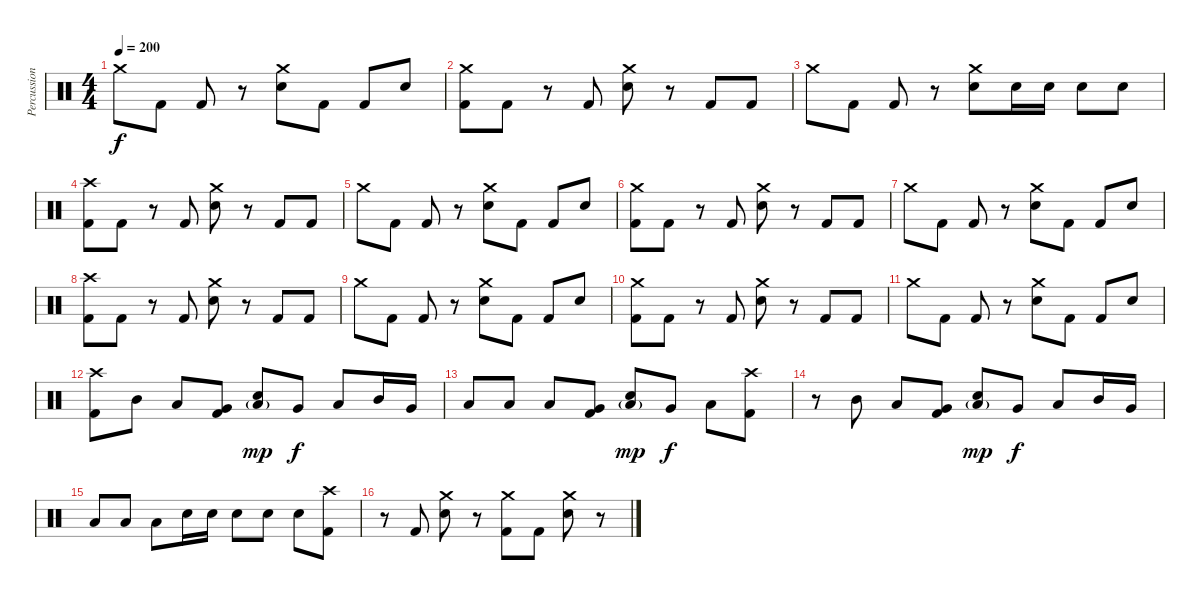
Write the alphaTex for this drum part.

\track ("Percussion" "Percussion") {instrument percussion}
\staff {score}
\articulation defaults
\ts (4 4)
\tempo 200
\clef neutral
\ks c "Crash medium (hit)".8{dy f} "Kick (hit) 2".8 "Kick (hit) 2".8
r.8 ("Crash medium (hit)" "Snare (hit) 2").8 "Kick (hit) 2".8 "Kick (hit) 2".8 "Snare (hit) 2".8 |
("Crash medium (hit)" "Kick (hit) 2").8 "Kick (hit) 2".8 r.8 "Kick (hit) 2".8 ("Crash medium (hit)" "Snare (hit) 2").8 r.8 "Kick (hit) 2".8 "Kick (hit) 2".8 |
"Crash medium (hit)".8 "Kick (hit) 2".8 "Kick (hit) 2".8 r.8 ("Crash medium (hit)" "Snare (hit) 2").8 "Snare (hit) 2".16 "Snare (hit) 2".16 "Snare (hit) 2".8 "Snare (hit) 2".8 |
("Crash high (hit)" "Kick (hit) 2").8 "Kick (hit) 2".8 r.8 "Kick (hit) 2".8 ("Crash medium (hit)" "Snare (hit) 2").8 r.8 "Kick (hit) 2".8 "Kick (hit) 2".8 |
"Crash medium (hit)".8 "Kick (hit) 2".8 "Kick (hit) 2".8 r.8 ("Crash medium (hit)" "Snare (hit) 2").8 "Kick (hit) 2".8 "Kick (hit) 2".8 "Snare (hit) 2".8 |
("Crash medium (hit)" "Kick (hit) 2").8 "Kick (hit) 2".8 r.8 "Kick (hit) 2".8 ("Crash medium (hit)" "Snare (hit) 2").8 r.8 "Kick (hit) 2".8 "Kick (hit) 2".8 |
"Crash medium (hit)".8 "Kick (hit) 2".8 "Kick (hit) 2".8 r.8 ("Crash medium (hit)" "Snare (hit) 2").8 "Kick (hit) 2".8 "Kick (hit) 2".8 "Snare (hit) 2".8 |
("Crash high (hit)" "Kick (hit) 2").8 "Kick (hit) 2".8 r.8 "Kick (hit) 2".8 ("Crash medium (hit)" "Snare (hit) 2").8 r.8 "Kick (hit) 2".8 "Kick (hit) 2".8 |
"Crash medium (hit)".8 "Kick (hit) 2".8 "Kick (hit) 2".8 r.8 ("Crash medium (hit)" "Snare (hit) 2").8 "Kick (hit) 2".8 "Kick (hit) 2".8 "Snare (hit) 2".8 |
("Crash medium (hit)" "Kick (hit) 2").8 "Kick (hit) 2".8 r.8 "Kick (hit) 2".8 ("Crash medium (hit)" "Snare (hit) 2").8 r.8 "Kick (hit) 2".8 "Kick (hit) 2".8 |
"Crash medium (hit)".8 "Kick (hit) 2".8 "Kick (hit) 2".8 r.8 ("Crash medium (hit)" "Snare (hit) 2").8 "Kick (hit) 2".8 "Kick (hit) 2".8 "Snare (hit) 2".8 |
("Crash high (hit)" "Kick (hit) 2").8 "Mid Tom (hit)".8 "Low Floor Tom (hit)".8 ("Very Low Tom (hit)" "Kick (hit) 2").8 ("Low Floor Tom (hit)"{g} "Snare (hit) 2").8{dy mp} "Very Low Tom (hit)".8{dy f} "Low Floor Tom (hit)".8 "Mid Tom (hit)".16 "Very Low Tom (hit)".16 |
"Low Floor Tom (hit)".8 "Low Tom (hit)".8 "Low Floor Tom (hit)".8 ("Very Low Tom (hit)" "Kick (hit) 2").8 ("Low Floor Tom (hit)"{g} "Snare (hit) 2").8{dy mp} "Very Low Tom (hit)".8{dy f} "Low Floor Tom (hit)".8 ("Crash high (hit)" "Kick (hit) 2").8 |
r.8 "Mid Tom (hit)".8 "Low Floor Tom (hit)".8 ("Very Low Tom (hit)" "Kick (hit) 2").8 ("Low Floor Tom (hit)"{g} "Snare (hit) 2").8{dy mp} "Very Low Tom (hit)".8{dy f} "Low Floor Tom (hit)".8 "Mid Tom (hit)".16 "Very Low Tom (hit)".16 |
"Low Floor Tom (hit)".8 "Low Tom (hit)".8 "Low Floor Tom (hit)".8 "Snare (hit) 2".16 "Snare (hit) 2".16 "Snare (hit) 2".8 "Snare (hit) 2".8 "Snare (hit) 2".8 ("Crash high (hit)" "Kick (hit) 2").8 |
r.8 "Kick (hit) 2".8 ("Crash medium (hit)" "Snare (hit) 2").8 r.8 ("Crash medium (hit)" "Kick (hit) 2").8 "Kick (hit) 2".8 ("Crash medium (hit)" "Snare (hit) 2").8 r.8
